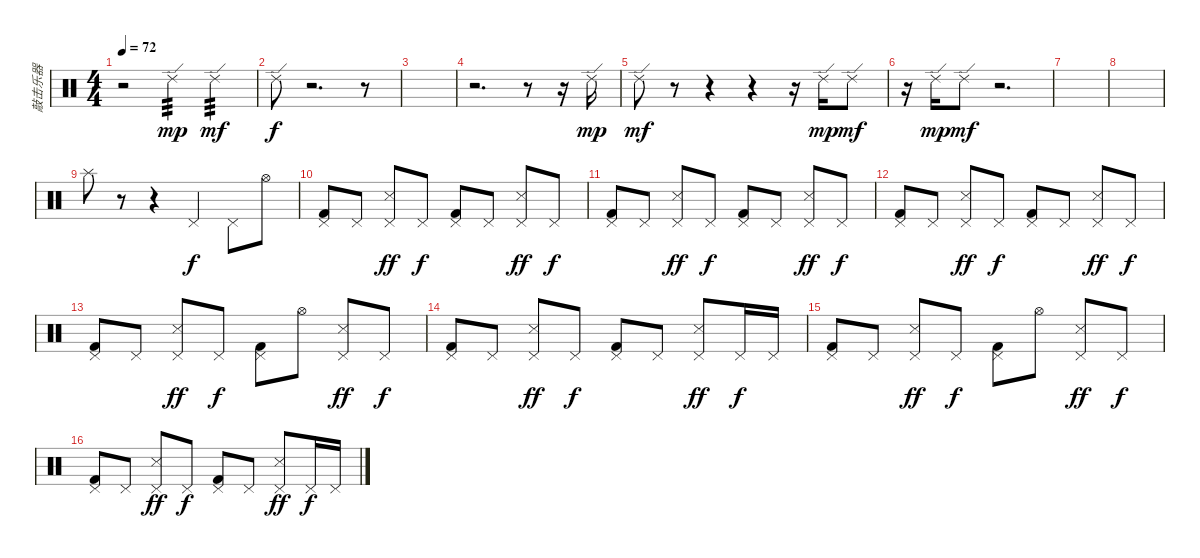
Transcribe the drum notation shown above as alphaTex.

\track ("敲击乐器" "敲击乐器") {instrument percussion}
\staff {score}
\articulation defaults
\ts (4 4)
\tempo 72
\clef neutral
\ks c
r.2{dy fff} "Ride (edge) 2".4{tp 3 dy mp} "Ride (edge) 2".4{tp 3 dy mf} |
"Ride (edge) 2".8{dy f} r.2{d} r.8 |
|
r.2{d} r.8 r.16 "Ride (edge) 2".16{dy mp} |
"Ride (edge) 2".8{dy mf} r.8 r.4 r.4 r.16 "Ride (edge) 2".16{dy mp} "Ride (edge) 2".8{dy mf} |
r.16 "Ride (edge) 2".16{dy mp} "Ride (edge) 2".8{dy mf} r.2{d} |
|
|
"Splash (hit)".8 r.8 r.4 "Pedal Hi-Hat (hit)".4{dy f} "Pedal Hi-Hat (hit)".8 "Hi-Hat (open)".8 |
("Pedal Hi-Hat (hit)" "Kick (hit) 2").8 "Pedal Hi-Hat (hit)".8 ("Pedal Hi-Hat (hit)" "Snare (side stick) 3").8{dy ff} "Pedal Hi-Hat (hit)".8{dy f} ("Pedal Hi-Hat (hit)" "Kick (hit) 2").8 "Pedal Hi-Hat (hit)".8 ("Pedal Hi-Hat (hit)" "Snare (side stick) 3").8{dy ff} "Pedal Hi-Hat (hit)".8{dy f} |
("Pedal Hi-Hat (hit)" "Kick (hit) 2").8 "Pedal Hi-Hat (hit)".8 ("Pedal Hi-Hat (hit)" "Snare (side stick) 3").8{dy ff} "Pedal Hi-Hat (hit)".8{dy f} ("Pedal Hi-Hat (hit)" "Kick (hit) 2").8 "Pedal Hi-Hat (hit)".8 ("Pedal Hi-Hat (hit)" "Snare (side stick) 3").8{dy ff} "Pedal Hi-Hat (hit)".8{dy f} |
("Pedal Hi-Hat (hit)" "Kick (hit) 2").8 "Pedal Hi-Hat (hit)".8 ("Pedal Hi-Hat (hit)" "Snare (side stick) 3").8{dy ff} "Pedal Hi-Hat (hit)".8{dy f} ("Pedal Hi-Hat (hit)" "Kick (hit) 2").8 "Pedal Hi-Hat (hit)".8 ("Pedal Hi-Hat (hit)" "Snare (side stick) 3").8{dy ff} "Pedal Hi-Hat (hit)".8{dy f} |
("Pedal Hi-Hat (hit)" "Kick (hit) 2").8 "Pedal Hi-Hat (hit)".8 ("Pedal Hi-Hat (hit)" "Snare (side stick) 3").8{dy ff} "Pedal Hi-Hat (hit)".8{dy f} ("Pedal Hi-Hat (hit)" "Kick (hit) 2").8 "Hi-Hat (open)".8 ("Pedal Hi-Hat (hit)" "Snare (side stick) 3").8{dy ff} "Pedal Hi-Hat (hit)".8{dy f} |
("Pedal Hi-Hat (hit)" "Kick (hit) 2").8 "Pedal Hi-Hat (hit)".8 ("Pedal Hi-Hat (hit)" "Snare (side stick) 3").8{dy ff} "Pedal Hi-Hat (hit)".8{dy f} ("Pedal Hi-Hat (hit)" "Kick (hit) 2").8 "Pedal Hi-Hat (hit)".8 ("Pedal Hi-Hat (hit)" "Snare (side stick) 3").8{dy ff} "Pedal Hi-Hat (hit)".16{dy f} "Pedal Hi-Hat (hit)".16 |
("Pedal Hi-Hat (hit)" "Kick (hit) 2").8 "Pedal Hi-Hat (hit)".8 ("Pedal Hi-Hat (hit)" "Snare (side stick) 3").8{dy ff} "Pedal Hi-Hat (hit)".8{dy f} ("Pedal Hi-Hat (hit)" "Kick (hit) 2").8 "Hi-Hat (open)".8 ("Pedal Hi-Hat (hit)" "Snare (side stick) 3").8{dy ff} "Pedal Hi-Hat (hit)".8{dy f} |
("Pedal Hi-Hat (hit)" "Kick (hit) 2").8 "Pedal Hi-Hat (hit)".8 ("Pedal Hi-Hat (hit)" "Snare (side stick) 3").8{dy ff} "Pedal Hi-Hat (hit)".8{dy f} ("Pedal Hi-Hat (hit)" "Kick (hit) 2").8 "Pedal Hi-Hat (hit)".8 ("Pedal Hi-Hat (hit)" "Snare (side stick) 3").8{dy ff} "Pedal Hi-Hat (hit)".16{dy f} "Pedal Hi-Hat (hit)".16
